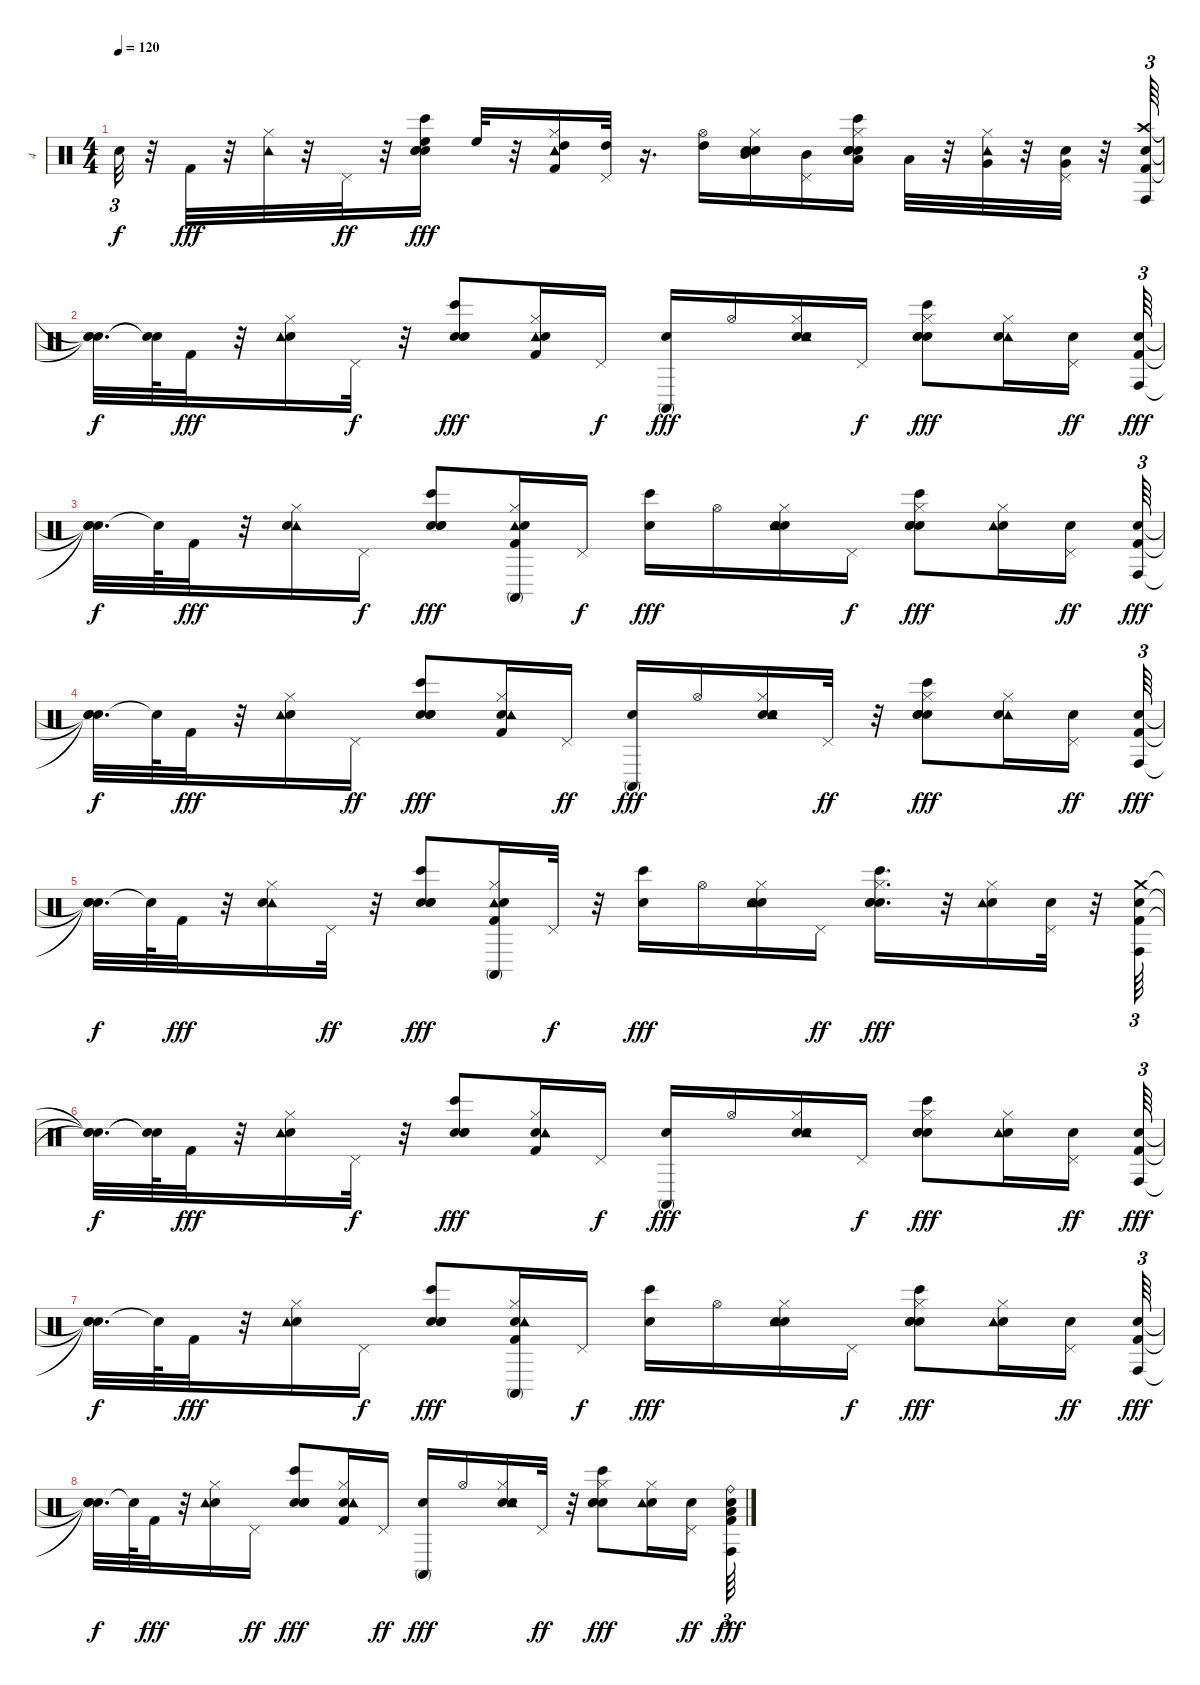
\track ("4" "4") {instrument percussion}
\staff {score}
\articulation defaults
\ts (4 4)
\tempo 120
\clef neutral
\ks c "Snare (hit)"{t}.32{tu (3 2) dy f}
r.32 "Kick (hit) 2".32{dy fff} r.32 ("Hi-Hat (closed)" "Tambourine (hit)").32 r.32 "Pedal Hi-Hat (hit)".32{dy ff} r.32 ("Snare (hit) 2" "Electric Snare (hit)" "Bongo High (hit)" "Hand Clap (hit)" "High Floor Tom (hit)").16{dy fff} "High Floor Tom (hit)".32 r.32 ("Hi-Hat (closed)" "High Tom (hit)" "Kick (hit) 2" "Tambourine (hit)").16 ("Pedal Hi-Hat (hit)" "High Tom (hit)").32 r.16{d} ("Hi-Hat (open)" "High Tom (hit)").16 ("Snare (hit) 2" "Hi-Hat (closed)" "Mid Tom (hit)" "Electric Snare (hit)" "Tambourine (hit)").16 ("Pedal Hi-Hat (hit)" "Mid Tom (hit)").16 ("Snare (hit) 2" "Electric Snare (hit)" "Hand Clap (hit)" "Hi-Hat (closed)" "Bongo High (hit)" "Low Tom (hit)").16 "Low Tom (hit)".32 r.32 ("Hi-Hat (closed)" "Very Low Tom (hit)" "Tambourine (hit)").32 r.32 ("Pedal Hi-Hat (hit)" "Snare (hit) 2" "Very Low Tom (hit)").32 r.32 ("Crash high (hit)" "Kick (hit) 2" "Hand Clap (hit)" "Conga high (hit)").64{tu (3 2)} |
("Snare (hit)"{t} "Snare (hit)"{t} "Snare (hit)"{t}).32{d dy f} ("Snare (hit)"{t} "Snare (hit)"{t}).64 "Kick (hit) 2".32{dy fff} r.32 ("Hi-Hat (closed)" "Hand Clap (hit)" "Tambourine (hit)").16 "Pedal Hi-Hat (hit)".32{dy f} r.32 ("Snare (hit) 2" "Hand Clap (hit)" "Bongo High (hit)" "Electric Snare (hit)").8{dy fff} ("Hi-Hat (closed)" "Tambourine (hit)" "Kick (hit) 2" "Hand Clap (hit)").16 "Pedal Hi-Hat (hit)".16{dy f} ("Hand Clap (hit)" "Conga high (mute)").16{dy fff} "Hi-Hat (open)".16 ("Hi-Hat (closed)" "Snare (hit) 2" "Tambourine (hit)" "Hand Clap (hit)").16 "Pedal Hi-Hat (hit)".16{dy f} ("Snare (hit) 2" "Hi-Hat (closed)" "Bongo High (hit)" "Electric Snare (hit)" "Hand Clap (hit)").8{dy fff} ("Hi-Hat (closed)" "Tambourine (hit)" "Hand Clap (hit)").16 ("Pedal Hi-Hat (hit)" "Snare (hit) 2").16{dy ff} ("Kick (hit) 2" "Hand Clap (hit)" "Conga high (hit)").64{tu (3 2) dy fff} |
("Snare (hit)"{t} "Snare (hit)"{t} "Snare (hit)"{t}).32{d dy f} "Snare (hit)"{t}.64 "Kick (hit) 2".32{dy fff} r.32 ("Hi-Hat (closed)" "Tambourine (hit)" "Hand Clap (hit)").16 "Pedal Hi-Hat (hit)".16{dy f} ("Snare (hit) 2" "Electric Snare (hit)" "Bongo High (hit)" "Hand Clap (hit)").8{dy fff} ("Hi-Hat (closed)" "Kick (hit) 2" "Tambourine (hit)" "Hand Clap (hit)" "Conga high (mute)").16 "Pedal Hi-Hat (hit)".16{dy f} ("Hand Clap (hit)" "Bongo High (hit)").16{dy fff} "Hi-Hat (open)".16 ("Snare (hit) 2" "Hi-Hat (closed)" "Hand Clap (hit)" "Tambourine (hit)").16 "Pedal Hi-Hat (hit)".16{dy f} ("Snare (hit) 2" "Hi-Hat (closed)" "Bongo High (hit)" "Electric Snare (hit)" "Hand Clap (hit)").8{dy fff} ("Hi-Hat (closed)" "Hand Clap (hit)" "Tambourine (hit)").16 ("Pedal Hi-Hat (hit)" "Snare (hit) 2").16{dy ff} ("Hand Clap (hit)" "Kick (hit) 2" "Conga high (hit)").64{tu (3 2) dy fff} |
("Snare (hit)"{t} "Snare (hit)"{t} "Snare (hit)"{t}).32{d dy f} "Snare (hit)"{t}.64 "Kick (hit) 2".32{dy fff} r.32 ("Hi-Hat (closed)" "Hand Clap (hit)" "Tambourine (hit)").16 "Pedal Hi-Hat (hit)".16{dy ff} ("Snare (hit) 2" "Hand Clap (hit)" "Electric Snare (hit)" "Bongo High (hit)").8{dy fff} ("Hi-Hat (closed)" "Hand Clap (hit)" "Kick (hit) 2" "Tambourine (hit)").16 "Pedal Hi-Hat (hit)".16{dy ff} ("Hand Clap (hit)" "Conga high (mute)").16{dy fff} "Hi-Hat (open)".16 ("Snare (hit) 2" "Hi-Hat (closed)" "Hand Clap (hit)" "Tambourine (hit)").16 "Pedal Hi-Hat (hit)".32{dy ff} r.32 ("Snare (hit) 2" "Electric Snare (hit)" "Hi-Hat (closed)" "Bongo High (hit)" "Hand Clap (hit)").8{dy fff} ("Hi-Hat (closed)" "Tambourine (hit)" "Hand Clap (hit)").16 ("Pedal Hi-Hat (hit)" "Snare (hit) 2").16{dy ff} ("Kick (hit) 2" "Hand Clap (hit)" "Conga high (hit)").64{tu (3 2) dy fff} |
("Snare (hit)"{t} "Snare (hit)"{t} "Snare (hit)"{t}).32{d dy f} "Snare (hit)"{t}.64 "Kick (hit) 2".32{dy fff} r.32 ("Hi-Hat (closed)" "Tambourine (hit)" "Hand Clap (hit)").16 "Pedal Hi-Hat (hit)".32{dy ff} r.32 ("Snare (hit) 2" "Electric Snare (hit)" "Bongo High (hit)" "Hand Clap (hit)").8{dy fff} ("Hi-Hat (closed)" "Kick (hit) 2" "Tambourine (hit)" "Hand Clap (hit)" "Conga high (mute)").16 "Pedal Hi-Hat (hit)".32{dy f} r.32 ("Hand Clap (hit)" "Bongo High (hit)").16{dy fff} "Hi-Hat (open)".16 ("Snare (hit) 2" "Hi-Hat (closed)" "Hand Clap (hit)" "Tambourine (hit)").16 "Pedal Hi-Hat (hit)".16{dy ff} ("Snare (hit) 2" "Electric Snare (hit)" "Hi-Hat (closed)" "Bongo High (hit)" "Hand Clap (hit)").16{d dy fff} r.32 ("Hi-Hat (closed)" "Hand Clap (hit)" "Tambourine (hit)").16 ("Pedal Hi-Hat (hit)" "Snare (hit) 2").32 r.32 ("Hand Clap (hit)" "Crash medium (hit)" "Kick (hit) 2" "Conga high (hit)").64{tu (3 2)} |
("Snare (hit)"{t} "Snare (hit)"{t} "Snare (hit)"{t}).32{d dy f} ("Snare (hit)"{t} "Snare (hit)"{t}).64 "Kick (hit) 2".32{dy fff} r.32 ("Hi-Hat (closed)" "Hand Clap (hit)" "Tambourine (hit)").16 "Pedal Hi-Hat (hit)".32{dy f} r.32 ("Snare (hit) 2" "Hand Clap (hit)" "Bongo High (hit)" "Electric Snare (hit)").8{dy fff} ("Hi-Hat (closed)" "Hand Clap (hit)" "Tambourine (hit)" "Kick (hit) 2").16 "Pedal Hi-Hat (hit)".16{dy f} ("Hand Clap (hit)" "Conga high (mute)").16{dy fff} "Hi-Hat (open)".16 ("Hi-Hat (closed)" "Snare (hit) 2" "Hand Clap (hit)" "Tambourine (hit)").16 "Pedal Hi-Hat (hit)".16{dy f} ("Snare (hit) 2" "Hand Clap (hit)" "Hi-Hat (closed)" "Bongo High (hit)" "Electric Snare (hit)").8{dy fff} ("Hi-Hat (closed)" "Hand Clap (hit)" "Tambourine (hit)").16 ("Pedal Hi-Hat (hit)" "Snare (hit) 2").16{dy ff} ("Hand Clap (hit)" "Kick (hit) 2" "Conga high (hit)").64{tu (3 2) dy fff} |
("Snare (hit)"{t} "Snare (hit)"{t} "Snare (hit)"{t}).32{d dy f} "Snare (hit)"{t}.64 "Kick (hit) 2".32{dy fff} r.32 ("Hi-Hat (closed)" "Hand Clap (hit)" "Tambourine (hit)").16 "Pedal Hi-Hat (hit)".16{dy f} ("Snare (hit) 2" "Hand Clap (hit)" "Electric Snare (hit)" "Bongo High (hit)").8{dy fff} ("Hi-Hat (closed)" "Hand Clap (hit)" "Kick (hit) 2" "Tambourine (hit)" "Conga high (mute)").16 "Pedal Hi-Hat (hit)".16{dy f} ("Hand Clap (hit)" "Bongo High (hit)").16{dy fff} "Hi-Hat (open)".16 ("Snare (hit) 2" "Hi-Hat (closed)" "Hand Clap (hit)" "Tambourine (hit)").16 "Pedal Hi-Hat (hit)".16{dy f} ("Snare (hit) 2" "Hand Clap (hit)" "Hi-Hat (closed)" "Bongo High (hit)" "Electric Snare (hit)").8{dy fff} ("Hi-Hat (closed)" "Hand Clap (hit)" "Tambourine (hit)").16 ("Pedal Hi-Hat (hit)" "Snare (hit) 2").16{dy ff} ("Hand Clap (hit)" "Kick (hit) 2" "Conga high (hit)").64{tu (3 2) dy fff} |
("Snare (hit)"{t} "Snare (hit)"{t} "Snare (hit)"{t}).32{d dy f} "Snare (hit)"{t}.64 "Kick (hit) 2".32{dy fff} r.32 ("Hi-Hat (closed)" "Hand Clap (hit)" "Tambourine (hit)").16 "Pedal Hi-Hat (hit)".16{dy ff} ("Snare (hit) 2" "Hand Clap (hit)" "Electric Snare (hit)" "Bongo High (hit)").8{dy fff} ("Hi-Hat (closed)" "Hand Clap (hit)" "Kick (hit) 2" "Tambourine (hit)").16 "Pedal Hi-Hat (hit)".16{dy ff} ("Hand Clap (hit)" "Conga high (mute)").16{dy fff} "Hi-Hat (open)".16 ("Snare (hit) 2" "Hi-Hat (closed)" "Hand Clap (hit)" "Tambourine (hit)").16 "Pedal Hi-Hat (hit)".32{dy ff} r.32 ("Snare (hit) 2" "Hand Clap (hit)" "Electric Snare (hit)" "Hi-Hat (closed)" "Bongo High (hit)").8{dy fff} ("Hi-Hat (closed)" "Hand Clap (hit)" "Tambourine (hit)").16 ("Pedal Hi-Hat (hit)" "Snare (hit) 2").16{dy ff} ("Hand Clap (hit)" "Kick (hit) 2" "Low Floor Tom (hit)" "Ride (bell)" "Conga high (hit)").64{tu (3 2) dy fff}
